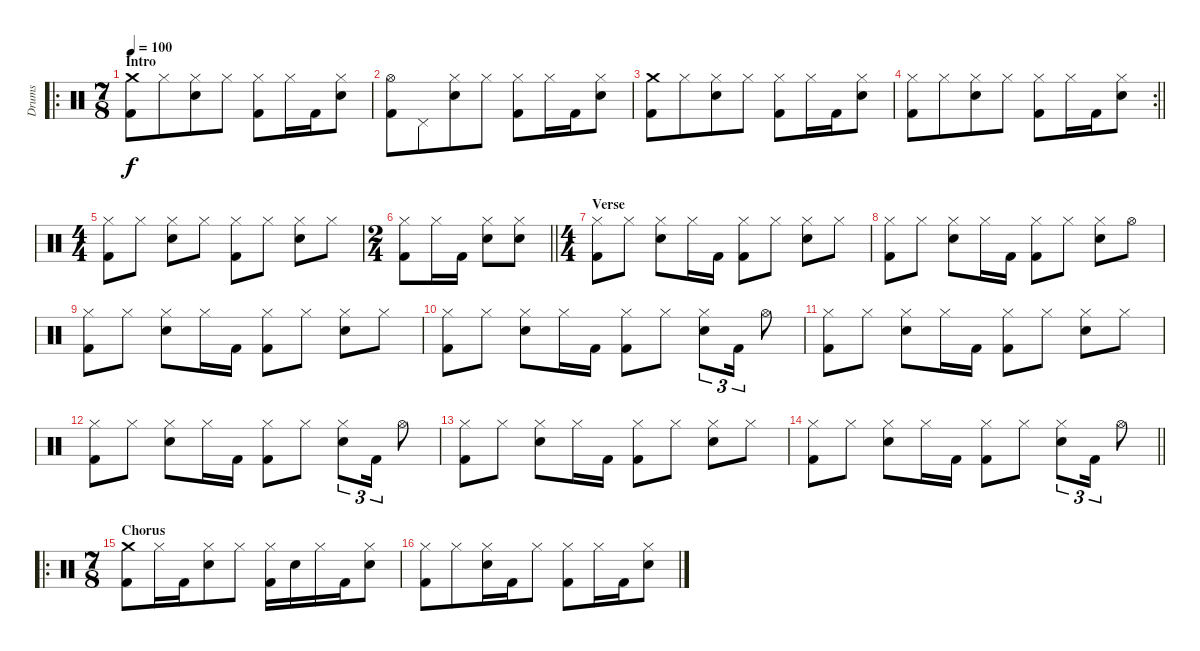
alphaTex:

\track ("Drums" "Drums") {instrument percussion}
\staff {score}
\articulation defaults
\ro
\ts (7 8)
\section ("" "Intro")
\tempo 100
\clef neutral
\ks c
("Crash medium (hit)" "Kick (hit) 2").8{dy f} "Hi-Hat (closed)".8 ("Hi-Hat (closed)" "Electric Snare (hit)").8 "Hi-Hat (closed)".8 ("Hi-Hat (closed)" "Kick (hit) 2").8 "Hi-Hat (closed)".16 "Kick (hit) 2".16 ("Hi-Hat (closed)" "Electric Snare (hit)").8 |
("Hi-Hat (open)" "Kick (hit) 2").8 "Pedal Hi-Hat (hit)".8 ("Hi-Hat (closed)" "Electric Snare (hit)").8 "Hi-Hat (closed)".8 ("Hi-Hat (closed)" "Kick (hit) 2").8 "Hi-Hat (closed)".16 "Kick (hit) 2".16 ("Hi-Hat (closed)" "Electric Snare (hit)").8 |
("Crash medium (hit)" "Kick (hit) 2").8 "Hi-Hat (closed)".8 ("Hi-Hat (closed)" "Electric Snare (hit)").8 "Hi-Hat (closed)".8 ("Hi-Hat (closed)" "Kick (hit) 2").8 "Hi-Hat (closed)".16 "Kick (hit) 2".16 ("Hi-Hat (closed)" "Electric Snare (hit)").8 |
\rc 2
\barLineRight lightlight
("Hi-Hat (closed)" "Kick (hit) 2").8 "Hi-Hat (closed)".8 ("Hi-Hat (closed)" "Electric Snare (hit)").8 "Hi-Hat (closed)".8 ("Hi-Hat (closed)" "Kick (hit) 2").8 "Hi-Hat (closed)".16 "Kick (hit) 2".16 ("Hi-Hat (closed)" "Electric Snare (hit)").8 |
\ts (4 4)
("Hi-Hat (closed)" "Kick (hit) 2").8 "Hi-Hat (closed)".8 ("Hi-Hat (closed)" "Electric Snare (hit)").8 "Hi-Hat (closed)".8 ("Hi-Hat (closed)" "Kick (hit) 2").8 "Hi-Hat (closed)".8 ("Hi-Hat (closed)" "Electric Snare (hit)").8 "Hi-Hat (closed)".8 |
\ts (2 4)
\barLineRight lightlight
("Hi-Hat (closed)" "Kick (hit) 2").8 "Hi-Hat (closed)".16 "Kick (hit) 2".16 ("Hi-Hat (closed)" "Electric Snare (hit)").8 ("Hi-Hat (closed)" "Electric Snare (hit)").8 |
\ts (4 4)
\section ("" "Verse")
("Hi-Hat (closed)" "Kick (hit) 2").8 "Hi-Hat (closed)".8 ("Hi-Hat (closed)" "Electric Snare (hit)").8 "Hi-Hat (closed)".16 "Kick (hit) 2".16 ("Hi-Hat (closed)" "Kick (hit) 2").8 "Hi-Hat (closed)".8 ("Hi-Hat (closed)" "Electric Snare (hit)").8 "Hi-Hat (closed)".8 |
("Hi-Hat (closed)" "Kick (hit) 2").8 "Hi-Hat (closed)".8 ("Hi-Hat (closed)" "Electric Snare (hit)").8 "Hi-Hat (closed)".16 "Kick (hit) 2".16 ("Hi-Hat (closed)" "Kick (hit) 2").8 "Hi-Hat (closed)".8 ("Hi-Hat (closed)" "Electric Snare (hit)").8 "Hi-Hat (open)".8 |
("Hi-Hat (closed)" "Kick (hit) 2").8 "Hi-Hat (closed)".8 ("Hi-Hat (closed)" "Electric Snare (hit)").8 "Hi-Hat (closed)".16 "Kick (hit) 2".16 ("Hi-Hat (closed)" "Kick (hit) 2").8 "Hi-Hat (closed)".8 ("Hi-Hat (closed)" "Electric Snare (hit)").8 "Hi-Hat (closed)".8 |
("Hi-Hat (closed)" "Kick (hit) 2").8 "Hi-Hat (closed)".8 ("Hi-Hat (closed)" "Electric Snare (hit)").8 "Hi-Hat (closed)".16 "Kick (hit) 2".16 ("Hi-Hat (closed)" "Kick (hit) 2").8 "Hi-Hat (closed)".8 ("Hi-Hat (closed)" "Electric Snare (hit)").8{tu (3 2)} "Kick (hit) 2".16{tu (3 2)} "Hi-Hat (open)".8 |
("Hi-Hat (closed)" "Kick (hit) 2").8 "Hi-Hat (closed)".8 ("Hi-Hat (closed)" "Electric Snare (hit)").8 "Hi-Hat (closed)".16 "Kick (hit) 2".16 ("Hi-Hat (closed)" "Kick (hit) 2").8 "Hi-Hat (closed)".8 ("Hi-Hat (closed)" "Electric Snare (hit)").8 "Hi-Hat (closed)".8 |
("Hi-Hat (closed)" "Kick (hit) 2").8 "Hi-Hat (closed)".8 ("Hi-Hat (closed)" "Electric Snare (hit)").8 "Hi-Hat (closed)".16 "Kick (hit) 2".16 ("Hi-Hat (closed)" "Kick (hit) 2").8 "Hi-Hat (closed)".8 ("Hi-Hat (closed)" "Electric Snare (hit)").8{tu (3 2)} "Kick (hit) 2".16{tu (3 2)} "Hi-Hat (open)".8 |
("Hi-Hat (closed)" "Kick (hit) 2").8 "Hi-Hat (closed)".8 ("Hi-Hat (closed)" "Electric Snare (hit)").8 "Hi-Hat (closed)".16 "Kick (hit) 2".16 ("Hi-Hat (closed)" "Kick (hit) 2").8 "Hi-Hat (closed)".8 ("Hi-Hat (closed)" "Electric Snare (hit)").8 "Hi-Hat (closed)".8 |
\barLineRight lightlight
("Hi-Hat (closed)" "Kick (hit) 2").8 "Hi-Hat (closed)".8 ("Hi-Hat (closed)" "Electric Snare (hit)").8 "Hi-Hat (closed)".16 "Kick (hit) 2".16 ("Hi-Hat (closed)" "Kick (hit) 2").8 "Hi-Hat (closed)".8 ("Hi-Hat (closed)" "Electric Snare (hit)").8{tu (3 2)} "Kick (hit) 2".16{tu (3 2)} "Hi-Hat (open)".8 |
\ro
\ts (7 8)
\section ("" "Chorus")
("Crash medium (hit)" "Kick (hit) 2").8 "Hi-Hat (closed)".16 "Kick (hit) 2".16 ("Hi-Hat (closed)" "Electric Snare (hit)").8 "Hi-Hat (closed)".8 ("Hi-Hat (closed)" "Kick (hit) 2").16 "Electric Snare (hit)".16 "Hi-Hat (closed)".16 "Kick (hit) 2".16 ("Hi-Hat (closed)" "Electric Snare (hit)").8 |
("Hi-Hat (closed)" "Kick (hit) 2").8 "Hi-Hat (closed)".8 ("Hi-Hat (closed)" "Electric Snare (hit)").16 "Kick (hit) 2".16 "Hi-Hat (closed)".8 ("Hi-Hat (closed)" "Kick (hit) 2").8 "Hi-Hat (closed)".16 "Kick (hit) 2".16 ("Hi-Hat (closed)" "Electric Snare (hit)").8
